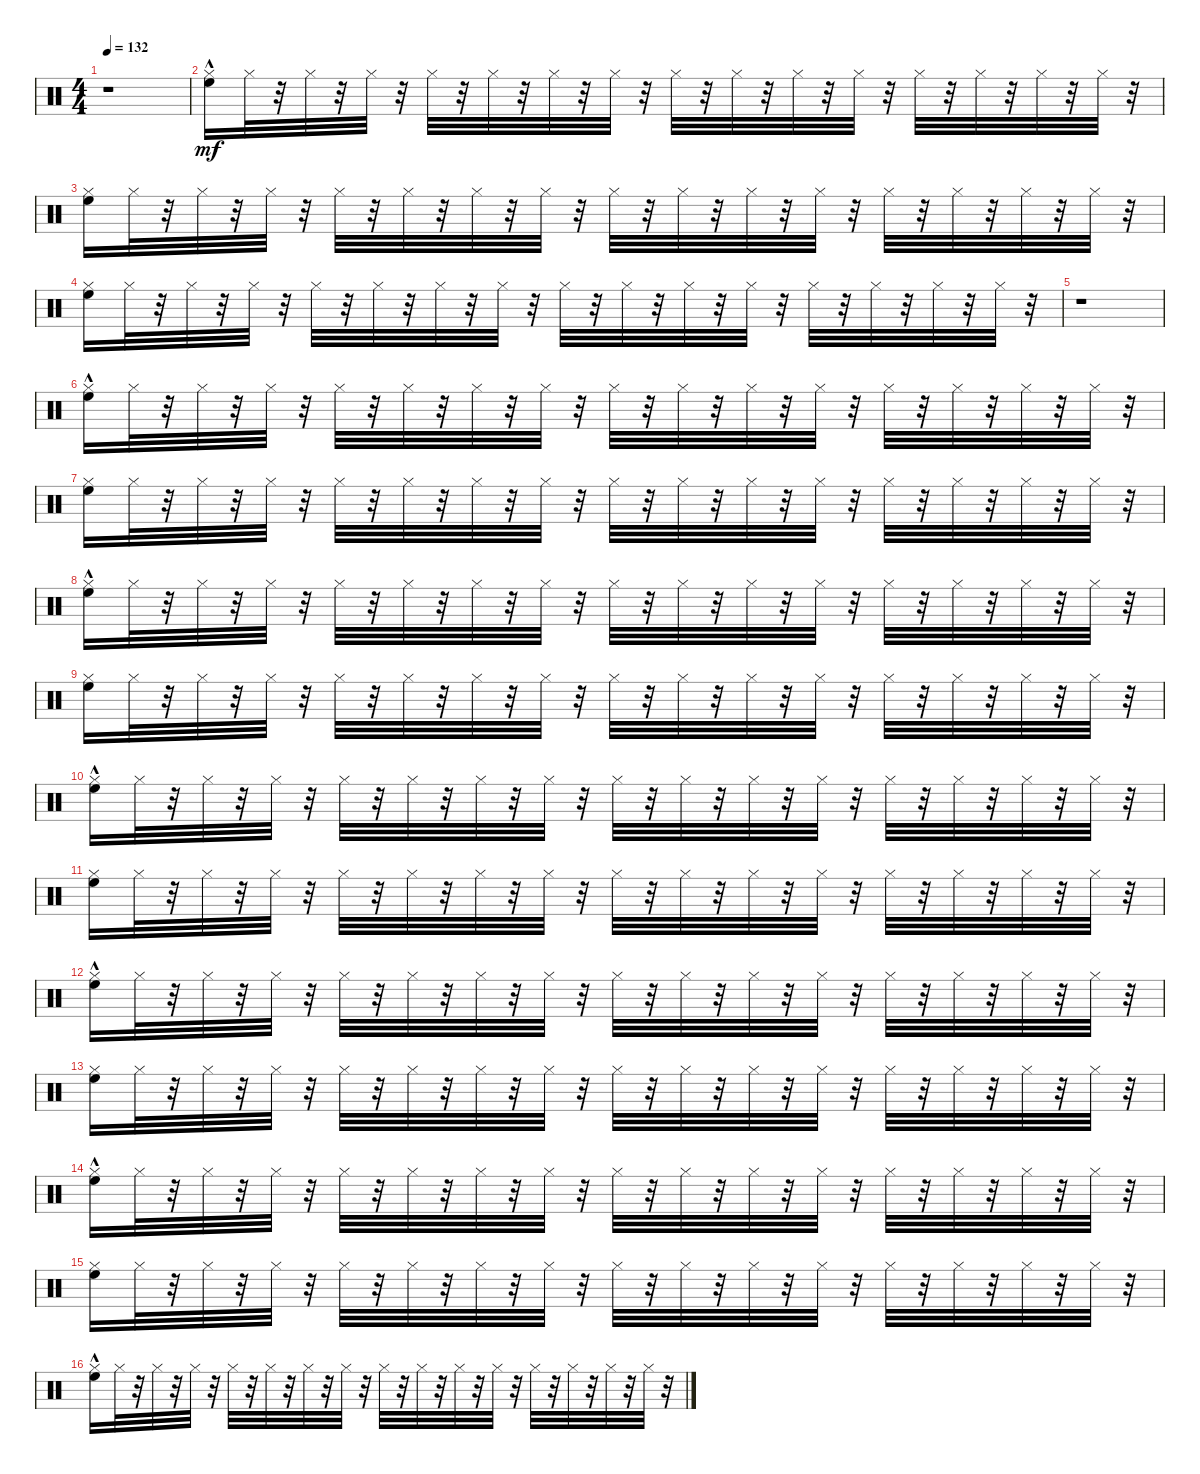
\track "" {instrument percussion}
\staff {score}
\articulation defaults
\ts (4 4)
\tempo 132
\clef neutral
\ks c
r.1{dy mf} |
("Hi-Hat (closed)" "High Floor Tom (hit)"{hac}).16 "Hi-Hat (closed)".32 r.32 "Hi-Hat (closed)".32 r.32 "Hi-Hat (closed)".32 r.32 "Hi-Hat (closed)".32 r.32 "Hi-Hat (closed)".32 r.32 "Hi-Hat (closed)".32 r.32 "Hi-Hat (closed)".32 r.32 "Hi-Hat (closed)".32 r.32 "Hi-Hat (closed)".32 r.32 "Hi-Hat (closed)".32 r.32 "Hi-Hat (closed)".32 r.32 "Hi-Hat (closed)".32 r.32 "Hi-Hat (closed)".32 r.32 "Hi-Hat (closed)".32 r.32 "Hi-Hat (closed)".32 r.32 |
("Hi-Hat (closed)" "High Floor Tom (hit)").16 "Hi-Hat (closed)".32 r.32 "Hi-Hat (closed)".32 r.32 "Hi-Hat (closed)".32 r.32 "Hi-Hat (closed)".32 r.32 "Hi-Hat (closed)".32 r.32 "Hi-Hat (closed)".32 r.32 "Hi-Hat (closed)".32 r.32 "Hi-Hat (closed)".32 r.32 "Hi-Hat (closed)".32 r.32 "Hi-Hat (closed)".32 r.32 "Hi-Hat (closed)".32 r.32 "Hi-Hat (closed)".32 r.32 "Hi-Hat (closed)".32 r.32 "Hi-Hat (closed)".32 r.32 "Hi-Hat (closed)".32 r.32 |
("Hi-Hat (closed)" "High Floor Tom (hit)").16 "Hi-Hat (closed)".32 r.32 "Hi-Hat (closed)".32 r.32 "Hi-Hat (closed)".32 r.32 "Hi-Hat (closed)".32 r.32 "Hi-Hat (closed)".32 r.32 "Hi-Hat (closed)".32 r.32 "Hi-Hat (closed)".32 r.32 "Hi-Hat (closed)".32 r.32 "Hi-Hat (closed)".32 r.32 "Hi-Hat (closed)".32 r.32 "Hi-Hat (closed)".32 r.32 "Hi-Hat (closed)".32 r.32 "Hi-Hat (closed)".32 r.32 "Hi-Hat (closed)".32 r.32 "Hi-Hat (closed)".32 r.32 |
r.1 |
("Hi-Hat (closed)" "High Floor Tom (hit)"{hac}).16 "Hi-Hat (closed)".32 r.32 "Hi-Hat (closed)".32 r.32 "Hi-Hat (closed)".32 r.32 "Hi-Hat (closed)".32 r.32 "Hi-Hat (closed)".32 r.32 "Hi-Hat (closed)".32 r.32 "Hi-Hat (closed)".32 r.32 "Hi-Hat (closed)".32 r.32 "Hi-Hat (closed)".32 r.32 "Hi-Hat (closed)".32 r.32 "Hi-Hat (closed)".32 r.32 "Hi-Hat (closed)".32 r.32 "Hi-Hat (closed)".32 r.32 "Hi-Hat (closed)".32 r.32 "Hi-Hat (closed)".32 r.32 |
("Hi-Hat (closed)" "High Floor Tom (hit)").16 "Hi-Hat (closed)".32 r.32 "Hi-Hat (closed)".32 r.32 "Hi-Hat (closed)".32 r.32 "Hi-Hat (closed)".32 r.32 "Hi-Hat (closed)".32 r.32 "Hi-Hat (closed)".32 r.32 "Hi-Hat (closed)".32 r.32 "Hi-Hat (closed)".32 r.32 "Hi-Hat (closed)".32 r.32 "Hi-Hat (closed)".32 r.32 "Hi-Hat (closed)".32 r.32 "Hi-Hat (closed)".32 r.32 "Hi-Hat (closed)".32 r.32 "Hi-Hat (closed)".32 r.32 "Hi-Hat (closed)".32 r.32 |
("Hi-Hat (closed)" "High Floor Tom (hit)"{hac}).16 "Hi-Hat (closed)".32 r.32 "Hi-Hat (closed)".32 r.32 "Hi-Hat (closed)".32 r.32 "Hi-Hat (closed)".32 r.32 "Hi-Hat (closed)".32 r.32 "Hi-Hat (closed)".32 r.32 "Hi-Hat (closed)".32 r.32 "Hi-Hat (closed)".32 r.32 "Hi-Hat (closed)".32 r.32 "Hi-Hat (closed)".32 r.32 "Hi-Hat (closed)".32 r.32 "Hi-Hat (closed)".32 r.32 "Hi-Hat (closed)".32 r.32 "Hi-Hat (closed)".32 r.32 "Hi-Hat (closed)".32 r.32 |
("Hi-Hat (closed)" "High Floor Tom (hit)").16 "Hi-Hat (closed)".32 r.32 "Hi-Hat (closed)".32 r.32 "Hi-Hat (closed)".32 r.32 "Hi-Hat (closed)".32 r.32 "Hi-Hat (closed)".32 r.32 "Hi-Hat (closed)".32 r.32 "Hi-Hat (closed)".32 r.32 "Hi-Hat (closed)".32 r.32 "Hi-Hat (closed)".32 r.32 "Hi-Hat (closed)".32 r.32 "Hi-Hat (closed)".32 r.32 "Hi-Hat (closed)".32 r.32 "Hi-Hat (closed)".32 r.32 "Hi-Hat (closed)".32 r.32 "Hi-Hat (closed)".32 r.32 |
("Hi-Hat (closed)" "High Floor Tom (hit)"{hac}).16 "Hi-Hat (closed)".32 r.32 "Hi-Hat (closed)".32 r.32 "Hi-Hat (closed)".32 r.32 "Hi-Hat (closed)".32 r.32 "Hi-Hat (closed)".32 r.32 "Hi-Hat (closed)".32 r.32 "Hi-Hat (closed)".32 r.32 "Hi-Hat (closed)".32 r.32 "Hi-Hat (closed)".32 r.32 "Hi-Hat (closed)".32 r.32 "Hi-Hat (closed)".32 r.32 "Hi-Hat (closed)".32 r.32 "Hi-Hat (closed)".32 r.32 "Hi-Hat (closed)".32 r.32 "Hi-Hat (closed)".32 r.32 |
("Hi-Hat (closed)" "High Floor Tom (hit)").16 "Hi-Hat (closed)".32 r.32 "Hi-Hat (closed)".32 r.32 "Hi-Hat (closed)".32 r.32 "Hi-Hat (closed)".32 r.32 "Hi-Hat (closed)".32 r.32 "Hi-Hat (closed)".32 r.32 "Hi-Hat (closed)".32 r.32 "Hi-Hat (closed)".32 r.32 "Hi-Hat (closed)".32 r.32 "Hi-Hat (closed)".32 r.32 "Hi-Hat (closed)".32 r.32 "Hi-Hat (closed)".32 r.32 "Hi-Hat (closed)".32 r.32 "Hi-Hat (closed)".32 r.32 "Hi-Hat (closed)".32 r.32 |
("Hi-Hat (closed)" "High Floor Tom (hit)"{hac}).16 "Hi-Hat (closed)".32 r.32 "Hi-Hat (closed)".32 r.32 "Hi-Hat (closed)".32 r.32 "Hi-Hat (closed)".32 r.32 "Hi-Hat (closed)".32 r.32 "Hi-Hat (closed)".32 r.32 "Hi-Hat (closed)".32 r.32 "Hi-Hat (closed)".32 r.32 "Hi-Hat (closed)".32 r.32 "Hi-Hat (closed)".32 r.32 "Hi-Hat (closed)".32 r.32 "Hi-Hat (closed)".32 r.32 "Hi-Hat (closed)".32 r.32 "Hi-Hat (closed)".32 r.32 "Hi-Hat (closed)".32 r.32 |
("Hi-Hat (closed)" "High Floor Tom (hit)").16 "Hi-Hat (closed)".32 r.32 "Hi-Hat (closed)".32 r.32 "Hi-Hat (closed)".32 r.32 "Hi-Hat (closed)".32 r.32 "Hi-Hat (closed)".32 r.32 "Hi-Hat (closed)".32 r.32 "Hi-Hat (closed)".32 r.32 "Hi-Hat (closed)".32 r.32 "Hi-Hat (closed)".32 r.32 "Hi-Hat (closed)".32 r.32 "Hi-Hat (closed)".32 r.32 "Hi-Hat (closed)".32 r.32 "Hi-Hat (closed)".32 r.32 "Hi-Hat (closed)".32 r.32 "Hi-Hat (closed)".32 r.32 |
("Hi-Hat (closed)" "High Floor Tom (hit)"{hac}).16 "Hi-Hat (closed)".32 r.32 "Hi-Hat (closed)".32 r.32 "Hi-Hat (closed)".32 r.32 "Hi-Hat (closed)".32 r.32 "Hi-Hat (closed)".32 r.32 "Hi-Hat (closed)".32 r.32 "Hi-Hat (closed)".32 r.32 "Hi-Hat (closed)".32 r.32 "Hi-Hat (closed)".32 r.32 "Hi-Hat (closed)".32 r.32 "Hi-Hat (closed)".32 r.32 "Hi-Hat (closed)".32 r.32 "Hi-Hat (closed)".32 r.32 "Hi-Hat (closed)".32 r.32 "Hi-Hat (closed)".32 r.32 |
("Hi-Hat (closed)" "High Floor Tom (hit)").16 "Hi-Hat (closed)".32 r.32 "Hi-Hat (closed)".32 r.32 "Hi-Hat (closed)".32 r.32 "Hi-Hat (closed)".32 r.32 "Hi-Hat (closed)".32 r.32 "Hi-Hat (closed)".32 r.32 "Hi-Hat (closed)".32 r.32 "Hi-Hat (closed)".32 r.32 "Hi-Hat (closed)".32 r.32 "Hi-Hat (closed)".32 r.32 "Hi-Hat (closed)".32 r.32 "Hi-Hat (closed)".32 r.32 "Hi-Hat (closed)".32 r.32 "Hi-Hat (closed)".32 r.32 "Hi-Hat (closed)".32 r.32 |
("Hi-Hat (closed)" "High Floor Tom (hit)"{hac}).16 "Hi-Hat (closed)".32 r.32 "Hi-Hat (closed)".32 r.32 "Hi-Hat (closed)".32 r.32 "Hi-Hat (closed)".32 r.32 "Hi-Hat (closed)".32 r.32 "Hi-Hat (closed)".32 r.32 "Hi-Hat (closed)".32 r.32 "Hi-Hat (closed)".32 r.32 "Hi-Hat (closed)".32 r.32 "Hi-Hat (closed)".32 r.32 "Hi-Hat (closed)".32 r.32 "Hi-Hat (closed)".32 r.32 "Hi-Hat (closed)".32 r.32 "Hi-Hat (closed)".32 r.32 "Hi-Hat (closed)".32 r.32
